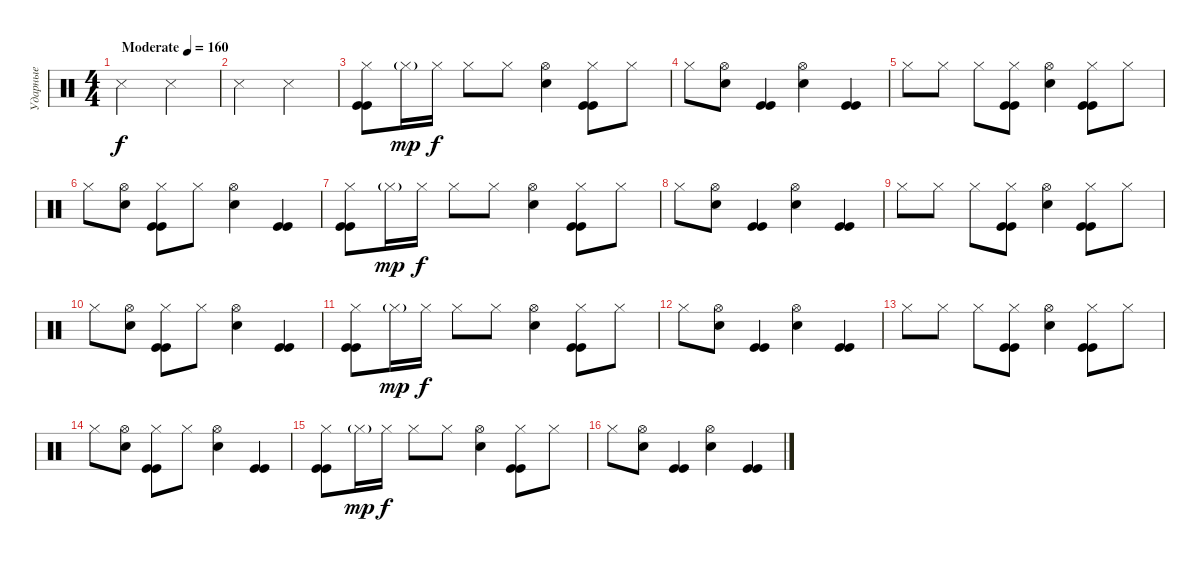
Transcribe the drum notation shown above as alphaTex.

\track ("Ударные" "Ударные") {instrument percussion}
\staff {score}
\articulation defaults
\ts (4 4)
\tempo (160 "Moderate")
\clef neutral
\ks c "Snare (side stick) 3".2{dy f} "Snare (side stick) 3".2
|
"Snare (side stick) 3".2 "Snare (side stick) 3".2 |
("Hi-Hat (closed)" "Kick (hit)" "Kick (hit)").8 "Hi-Hat (closed)"{g}.16{dy mp} "Hi-Hat (closed)".16{dy f} "Hi-Hat (closed)".8 "Hi-Hat (closed)".8 ("Electric Snare (hit)" "Hi-Hat (open)").4 ("Hi-Hat (closed)" "Kick (hit)" "Kick (hit)").8 "Hi-Hat (closed)".8 |
"Hi-Hat (closed)".8 ("Electric Snare (hit)" "Hi-Hat (open)").8 ("Kick (hit)" "Kick (hit)").4 ("Electric Snare (hit)" "Hi-Hat (open)").4 ("Kick (hit)" "Kick (hit)").4 |
"Hi-Hat (closed)".8 "Hi-Hat (closed)".8 "Hi-Hat (closed)".8 ("Hi-Hat (closed)" "Kick (hit)" "Kick (hit)").8 ("Electric Snare (hit)" "Hi-Hat (open)").4 ("Hi-Hat (closed)" "Kick (hit)" "Kick (hit)").8 "Hi-Hat (closed)".8 |
"Hi-Hat (closed)".8 ("Electric Snare (hit)" "Hi-Hat (open)").8 ("Hi-Hat (closed)" "Kick (hit)" "Kick (hit)").8 "Hi-Hat (closed)".8 ("Electric Snare (hit)" "Hi-Hat (open)").4 ("Kick (hit)" "Kick (hit)").4 |
("Hi-Hat (closed)" "Kick (hit)" "Kick (hit)").8 "Hi-Hat (closed)"{g}.16{dy mp} "Hi-Hat (closed)".16{dy f} "Hi-Hat (closed)".8 "Hi-Hat (closed)".8 ("Electric Snare (hit)" "Hi-Hat (open)").4 ("Hi-Hat (closed)" "Kick (hit)" "Kick (hit)").8 "Hi-Hat (closed)".8 |
"Hi-Hat (closed)".8 ("Electric Snare (hit)" "Hi-Hat (open)").8 ("Kick (hit)" "Kick (hit)").4 ("Electric Snare (hit)" "Hi-Hat (open)").4 ("Kick (hit)" "Kick (hit)").4 |
"Hi-Hat (closed)".8 "Hi-Hat (closed)".8 "Hi-Hat (closed)".8 ("Hi-Hat (closed)" "Kick (hit)" "Kick (hit)").8 ("Electric Snare (hit)" "Hi-Hat (open)").4 ("Hi-Hat (closed)" "Kick (hit)" "Kick (hit)").8 "Hi-Hat (closed)".8 |
"Hi-Hat (closed)".8 ("Electric Snare (hit)" "Hi-Hat (open)").8 ("Hi-Hat (closed)" "Kick (hit)" "Kick (hit)").8 "Hi-Hat (closed)".8 ("Electric Snare (hit)" "Hi-Hat (open)").4 ("Kick (hit)" "Kick (hit)").4 |
("Hi-Hat (closed)" "Kick (hit)" "Kick (hit)").8 "Hi-Hat (closed)"{g}.16{dy mp} "Hi-Hat (closed)".16{dy f} "Hi-Hat (closed)".8 "Hi-Hat (closed)".8 ("Electric Snare (hit)" "Hi-Hat (open)").4 ("Hi-Hat (closed)" "Kick (hit)" "Kick (hit)").8 "Hi-Hat (closed)".8 |
"Hi-Hat (closed)".8 ("Electric Snare (hit)" "Hi-Hat (open)").8 ("Kick (hit)" "Kick (hit)").4 ("Electric Snare (hit)" "Hi-Hat (open)").4 ("Kick (hit)" "Kick (hit)").4 |
"Hi-Hat (closed)".8 "Hi-Hat (closed)".8 "Hi-Hat (closed)".8 ("Hi-Hat (closed)" "Kick (hit)" "Kick (hit)").8 ("Electric Snare (hit)" "Hi-Hat (open)").4 ("Hi-Hat (closed)" "Kick (hit)" "Kick (hit)").8 "Hi-Hat (closed)".8 |
"Hi-Hat (closed)".8 ("Electric Snare (hit)" "Hi-Hat (open)").8 ("Hi-Hat (closed)" "Kick (hit)" "Kick (hit)").8 "Hi-Hat (closed)".8 ("Electric Snare (hit)" "Hi-Hat (open)").4 ("Kick (hit)" "Kick (hit)").4 |
("Hi-Hat (closed)" "Kick (hit)" "Kick (hit)").8 "Hi-Hat (closed)"{g}.16{dy mp} "Hi-Hat (closed)".16{dy f} "Hi-Hat (closed)".8 "Hi-Hat (closed)".8 ("Electric Snare (hit)" "Hi-Hat (open)").4 ("Hi-Hat (closed)" "Kick (hit)" "Kick (hit)").8 "Hi-Hat (closed)".8 |
"Hi-Hat (closed)".8 ("Electric Snare (hit)" "Hi-Hat (open)").8 ("Kick (hit)" "Kick (hit)").4 ("Electric Snare (hit)" "Hi-Hat (open)").4 ("Kick (hit)" "Kick (hit)").4
